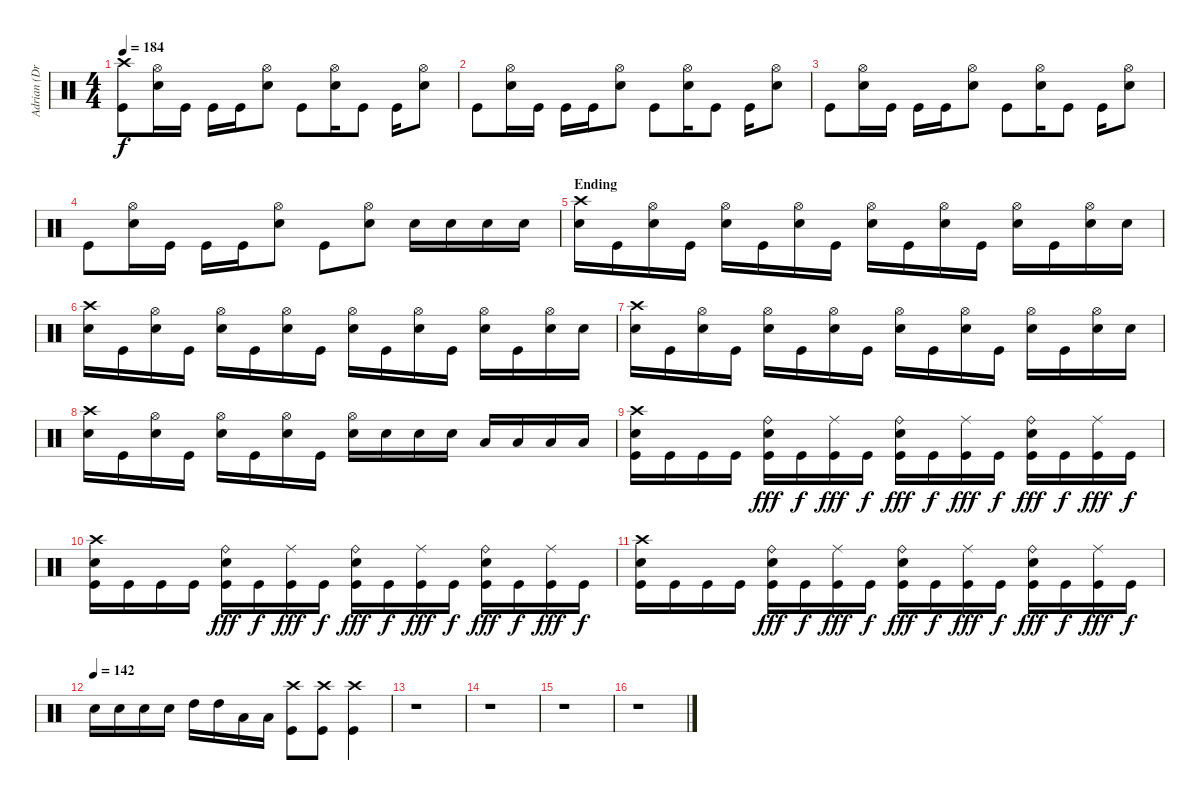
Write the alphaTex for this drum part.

\track ("Adrian (Drums)" "Adrian (Dr") {instrument percussion}
\staff {score}
\articulation defaults
\ts (4 4)
\tempo 184
\clef neutral
\ks c
("Crash high (hit)" "Kick (hit)").8{dy f} ("Hi-Hat (open)" "Electric Snare (hit)").16 "Kick (hit)".16 "Kick (hit)".16 "Kick (hit)".16 ("Hi-Hat (open)" "Electric Snare (hit)").8 "Kick (hit)".8 ("Hi-Hat (open)" "Electric Snare (hit)").16 "Kick (hit)".8 "Kick (hit)".16 ("Hi-Hat (open)" "Electric Snare (hit)").8 |
"Kick (hit)".8 ("Hi-Hat (open)" "Electric Snare (hit)").16 "Kick (hit)".16 "Kick (hit)".16 "Kick (hit)".16 ("Hi-Hat (open)" "Electric Snare (hit)").8 "Kick (hit)".8 ("Hi-Hat (open)" "Electric Snare (hit)").16 "Kick (hit)".8 "Kick (hit)".16 ("Hi-Hat (open)" "Electric Snare (hit)").8 |
"Kick (hit)".8 ("Hi-Hat (open)" "Electric Snare (hit)").16 "Kick (hit)".16 "Kick (hit)".16 "Kick (hit)".16 ("Hi-Hat (open)" "Electric Snare (hit)").8 "Kick (hit)".8 ("Hi-Hat (open)" "Electric Snare (hit)").16 "Kick (hit)".8 "Kick (hit)".16 ("Hi-Hat (open)" "Electric Snare (hit)").8 |
"Kick (hit)".8 ("Hi-Hat (open)" "Electric Snare (hit)").16 "Kick (hit)".16 "Kick (hit)".16 "Kick (hit)".16 ("Hi-Hat (open)" "Electric Snare (hit)").8 "Kick (hit)".8 ("Hi-Hat (open)" "Electric Snare (hit)").8 "Electric Snare (hit)".16 "Electric Snare (hit)".16 "Electric Snare (hit)".16 "Electric Snare (hit)".16 |
\section ("" "Ending")
("Crash high (hit)" "Electric Snare (hit)").16 "Kick (hit)".16 ("Hi-Hat (open)" "Electric Snare (hit)").16 "Kick (hit)".16 ("Hi-Hat (open)" "Electric Snare (hit)").16 "Kick (hit)".16 ("Hi-Hat (open)" "Electric Snare (hit)").16 "Kick (hit)".16 ("Hi-Hat (open)" "Electric Snare (hit)").16 "Kick (hit)".16 ("Hi-Hat (open)" "Electric Snare (hit)").16 "Kick (hit)".16 ("Hi-Hat (open)" "Electric Snare (hit)").16 "Kick (hit)".16 ("Hi-Hat (open)" "Electric Snare (hit)").16 "Electric Snare (hit)".16 |
("Crash high (hit)" "Electric Snare (hit)").16 "Kick (hit)".16 ("Hi-Hat (open)" "Electric Snare (hit)").16 "Kick (hit)".16 ("Hi-Hat (open)" "Electric Snare (hit)").16 "Kick (hit)".16 ("Hi-Hat (open)" "Electric Snare (hit)").16 "Kick (hit)".16 ("Hi-Hat (open)" "Electric Snare (hit)").16 "Kick (hit)".16 ("Hi-Hat (open)" "Electric Snare (hit)").16 "Kick (hit)".16 ("Hi-Hat (open)" "Electric Snare (hit)").16 "Kick (hit)".16 ("Hi-Hat (open)" "Electric Snare (hit)").16 "Electric Snare (hit)".16 |
("Crash high (hit)" "Electric Snare (hit)").16 "Kick (hit)".16 ("Hi-Hat (open)" "Electric Snare (hit)").16 "Kick (hit)".16 ("Hi-Hat (open)" "Electric Snare (hit)").16 "Kick (hit)".16 ("Hi-Hat (open)" "Electric Snare (hit)").16 "Kick (hit)".16 ("Hi-Hat (open)" "Electric Snare (hit)").16 "Kick (hit)".16 ("Hi-Hat (open)" "Electric Snare (hit)").16 "Kick (hit)".16 ("Hi-Hat (open)" "Electric Snare (hit)").16 "Kick (hit)".16 ("Hi-Hat (open)" "Electric Snare (hit)").16 "Electric Snare (hit)".16 |
("Crash high (hit)" "Electric Snare (hit)").16 "Kick (hit)".16 ("Hi-Hat (open)" "Electric Snare (hit)").16 "Kick (hit)".16 ("Hi-Hat (open)" "Electric Snare (hit)").16 "Kick (hit)".16 ("Hi-Hat (open)" "Electric Snare (hit)").16 "Kick (hit)".16 ("Hi-Hat (open)" "Electric Snare (hit)").16 "Electric Snare (hit)".16 "Electric Snare (hit)".16 "Electric Snare (hit)".16 "Low Tom (hit)".16 "Low Tom (hit)".16 "Low Tom (hit)".16 "Low Tom (hit)".16 |
("Crash high (hit)" "Electric Snare (hit)" "Kick (hit)").16 "Kick (hit)".16 "Kick (hit)".16 "Kick (hit)".16 ("Ride (bell)" "Electric Snare (hit)" "Kick (hit)").16{dy fff} "Kick (hit)".16{dy f} ("Ride (middle)" "Kick (hit)").16{dy fff} "Kick (hit)".16{dy f} ("Ride (bell)" "Electric Snare (hit)" "Kick (hit)").16{dy fff} "Kick (hit)".16{dy f} ("Ride (middle)" "Kick (hit)").16{dy fff} "Kick (hit)".16{dy f} ("Ride (bell)" "Electric Snare (hit)" "Kick (hit)").16{dy fff} "Kick (hit)".16{dy f} ("Ride (middle)" "Kick (hit)").16{dy fff} "Kick (hit)".16{dy f} |
("Crash high (hit)" "Electric Snare (hit)" "Kick (hit)").16 "Kick (hit)".16 "Kick (hit)".16 "Kick (hit)".16 ("Ride (bell)" "Electric Snare (hit)" "Kick (hit)").16{dy fff} "Kick (hit)".16{dy f} ("Ride (middle)" "Kick (hit)").16{dy fff} "Kick (hit)".16{dy f} ("Ride (bell)" "Electric Snare (hit)" "Kick (hit)").16{dy fff} "Kick (hit)".16{dy f} ("Ride (middle)" "Kick (hit)").16{dy fff} "Kick (hit)".16{dy f} ("Ride (bell)" "Electric Snare (hit)" "Kick (hit)").16{dy fff} "Kick (hit)".16{dy f} ("Ride (middle)" "Kick (hit)").16{dy fff} "Kick (hit)".16{dy f} |
("Crash high (hit)" "Electric Snare (hit)" "Kick (hit)").16 "Kick (hit)".16 "Kick (hit)".16 "Kick (hit)".16 ("Ride (bell)" "Electric Snare (hit)" "Kick (hit)").16{dy fff} "Kick (hit)".16{dy f} ("Ride (middle)" "Kick (hit)").16{dy fff} "Kick (hit)".16{dy f} ("Ride (bell)" "Electric Snare (hit)" "Kick (hit)").16{dy fff} "Kick (hit)".16{dy f} ("Ride (middle)" "Kick (hit)").16{dy fff} "Kick (hit)".16{dy f} ("Ride (bell)" "Electric Snare (hit)" "Kick (hit)").16{dy fff} "Kick (hit)".16{dy f} ("Ride (middle)" "Kick (hit)").16{dy fff} "Kick (hit)".16{dy f} |
\tempo (142)
"Electric Snare (hit)".16 "Electric Snare (hit)".16 "Electric Snare (hit)".16 "Electric Snare (hit)".16 "High Tom (hit)".16 "High Tom (hit)".16 "Low Tom (hit)".16 "Low Tom (hit)".16 ("Crash high (hit)" "Kick (hit)").8 ("Crash high (hit)" "Kick (hit)").8 ("Crash high (hit)" "Kick (hit)").4 |
r.1 |
r.1 |
r.1 |
r.1
